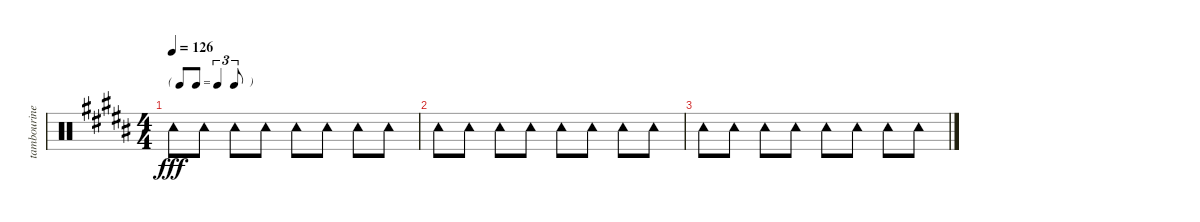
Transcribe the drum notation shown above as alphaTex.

\track ("tambourine" "tambourine") {instrument percussion}
\staff {score}
\articulation defaults
\ts (4 4)
\tf triplet8th
\tempo 126
\clef neutral
\ks b "Tambourine (hit)".8{dy fff} "Tambourine (hit)".8 "Tambourine (hit)".8 "Tambourine (hit)".8 "Tambourine (hit)".8 "Tambourine (hit)".8 "Tambourine (hit)".8 "Tambourine (hit)".8
|
"Tambourine (hit)".8 "Tambourine (hit)".8 "Tambourine (hit)".8 "Tambourine (hit)".8 "Tambourine (hit)".8 "Tambourine (hit)".8 "Tambourine (hit)".8 "Tambourine (hit)".8 |
"Tambourine (hit)".8 "Tambourine (hit)".8 "Tambourine (hit)".8 "Tambourine (hit)".8 "Tambourine (hit)".8 "Tambourine (hit)".8 "Tambourine (hit)".8 "Tambourine (hit)".8
